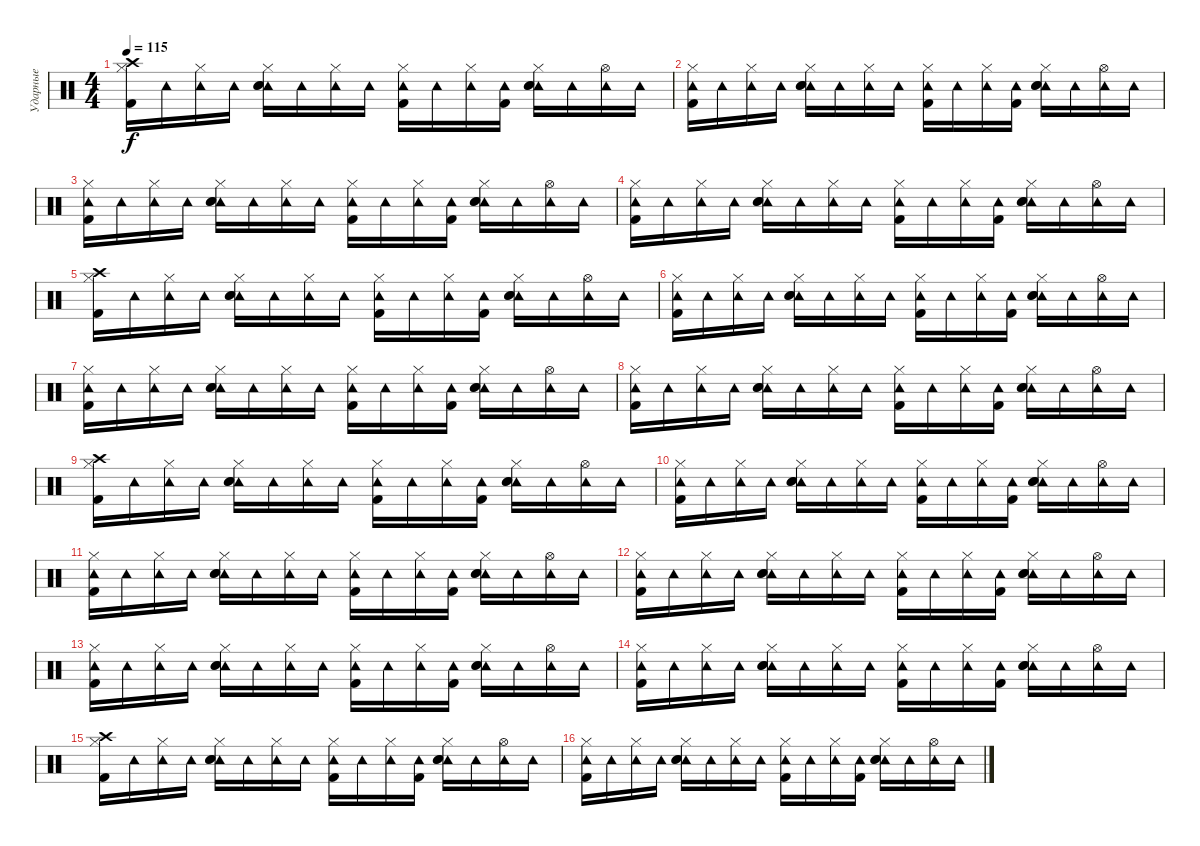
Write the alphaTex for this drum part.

\track ("Ударные" "Ударные") {instrument percussion}
\staff {score}
\articulation defaults
\ts (4 4)
\tempo 115
\clef neutral
\ks c
("Crash high (hit)" "Hi-Hat (closed)" "Kick (hit) 2").16{dy f} "Tambourine (hit)".16 ("Tambourine (hit)" "Hi-Hat (closed)").16 "Tambourine (hit)".16 ("Tambourine (hit)" "Hi-Hat (closed)" "Electric Snare (hit)" "Snare (hit) 2").16 "Tambourine (hit)".16 ("Tambourine (hit)" "Hi-Hat (closed)").16 "Tambourine (hit)".16 ("Tambourine (hit)" "Hi-Hat (closed)" "Kick (hit) 2").16 "Tambourine (hit)".16 ("Tambourine (hit)" "Hi-Hat (closed)").16 ("Tambourine (hit)" "Kick (hit) 2").16 ("Tambourine (hit)" "Hi-Hat (closed)" "Electric Snare (hit)" "Snare (hit) 2").16 "Tambourine (hit)".16 ("Tambourine (hit)" "Hi-Hat (open)").16 "Tambourine (hit)".16 |
("Tambourine (hit)" "Hi-Hat (closed)" "Kick (hit) 2").16 "Tambourine (hit)".16 ("Tambourine (hit)" "Hi-Hat (closed)").16 "Tambourine (hit)".16 ("Tambourine (hit)" "Hi-Hat (closed)" "Electric Snare (hit)" "Snare (hit) 2").16 "Tambourine (hit)".16 ("Tambourine (hit)" "Hi-Hat (closed)").16 "Tambourine (hit)".16 ("Tambourine (hit)" "Hi-Hat (closed)" "Kick (hit) 2").16 "Tambourine (hit)".16 ("Tambourine (hit)" "Hi-Hat (closed)").16 ("Tambourine (hit)" "Kick (hit) 2").16 ("Tambourine (hit)" "Hi-Hat (closed)" "Electric Snare (hit)" "Snare (hit) 2").16 "Tambourine (hit)".16 ("Tambourine (hit)" "Hi-Hat (open)").16 "Tambourine (hit)".16 |
("Tambourine (hit)" "Hi-Hat (closed)" "Kick (hit) 2").16 "Tambourine (hit)".16 ("Tambourine (hit)" "Hi-Hat (closed)").16 "Tambourine (hit)".16 ("Tambourine (hit)" "Hi-Hat (closed)" "Electric Snare (hit)" "Snare (hit) 2").16 "Tambourine (hit)".16 ("Tambourine (hit)" "Hi-Hat (closed)").16 "Tambourine (hit)".16 ("Tambourine (hit)" "Hi-Hat (closed)" "Kick (hit) 2").16 "Tambourine (hit)".16 ("Tambourine (hit)" "Hi-Hat (closed)").16 ("Tambourine (hit)" "Kick (hit) 2").16 ("Tambourine (hit)" "Hi-Hat (closed)" "Electric Snare (hit)" "Snare (hit) 2").16 "Tambourine (hit)".16 ("Tambourine (hit)" "Hi-Hat (open)").16 "Tambourine (hit)".16 |
("Tambourine (hit)" "Hi-Hat (closed)" "Kick (hit) 2").16 "Tambourine (hit)".16 ("Tambourine (hit)" "Hi-Hat (closed)").16 "Tambourine (hit)".16 ("Tambourine (hit)" "Hi-Hat (closed)" "Electric Snare (hit)" "Snare (hit) 2").16 "Tambourine (hit)".16 ("Tambourine (hit)" "Hi-Hat (closed)").16 "Tambourine (hit)".16 ("Tambourine (hit)" "Hi-Hat (closed)" "Kick (hit) 2").16 "Tambourine (hit)".16 ("Tambourine (hit)" "Hi-Hat (closed)").16 ("Tambourine (hit)" "Kick (hit) 2").16 ("Tambourine (hit)" "Hi-Hat (closed)" "Electric Snare (hit)" "Snare (hit) 2").16 "Tambourine (hit)".16 ("Tambourine (hit)" "Hi-Hat (open)").16 "Tambourine (hit)".16 |
("Crash high (hit)" "Hi-Hat (closed)" "Kick (hit) 2").16 "Tambourine (hit)".16 ("Tambourine (hit)" "Hi-Hat (closed)").16 "Tambourine (hit)".16 ("Tambourine (hit)" "Hi-Hat (closed)" "Electric Snare (hit)" "Snare (hit) 2").16 "Tambourine (hit)".16 ("Tambourine (hit)" "Hi-Hat (closed)").16 "Tambourine (hit)".16 ("Tambourine (hit)" "Hi-Hat (closed)" "Kick (hit) 2").16 "Tambourine (hit)".16 ("Tambourine (hit)" "Hi-Hat (closed)").16 ("Tambourine (hit)" "Kick (hit) 2").16 ("Tambourine (hit)" "Hi-Hat (closed)" "Electric Snare (hit)" "Snare (hit) 2").16 "Tambourine (hit)".16 ("Tambourine (hit)" "Hi-Hat (open)").16 "Tambourine (hit)".16 |
("Tambourine (hit)" "Hi-Hat (closed)" "Kick (hit) 2").16 "Tambourine (hit)".16 ("Tambourine (hit)" "Hi-Hat (closed)").16 "Tambourine (hit)".16 ("Tambourine (hit)" "Hi-Hat (closed)" "Electric Snare (hit)" "Snare (hit) 2").16 "Tambourine (hit)".16 ("Tambourine (hit)" "Hi-Hat (closed)").16 "Tambourine (hit)".16 ("Tambourine (hit)" "Hi-Hat (closed)" "Kick (hit) 2").16 "Tambourine (hit)".16 ("Tambourine (hit)" "Hi-Hat (closed)").16 ("Tambourine (hit)" "Kick (hit) 2").16 ("Tambourine (hit)" "Hi-Hat (closed)" "Electric Snare (hit)" "Snare (hit) 2").16 "Tambourine (hit)".16 ("Tambourine (hit)" "Hi-Hat (open)").16 "Tambourine (hit)".16 |
("Tambourine (hit)" "Hi-Hat (closed)" "Kick (hit) 2").16 "Tambourine (hit)".16 ("Tambourine (hit)" "Hi-Hat (closed)").16 "Tambourine (hit)".16 ("Tambourine (hit)" "Hi-Hat (closed)" "Electric Snare (hit)" "Snare (hit) 2").16 "Tambourine (hit)".16 ("Tambourine (hit)" "Hi-Hat (closed)").16 "Tambourine (hit)".16 ("Tambourine (hit)" "Hi-Hat (closed)" "Kick (hit) 2").16 "Tambourine (hit)".16 ("Tambourine (hit)" "Hi-Hat (closed)").16 ("Tambourine (hit)" "Kick (hit) 2").16 ("Tambourine (hit)" "Hi-Hat (closed)" "Electric Snare (hit)" "Snare (hit) 2").16 "Tambourine (hit)".16 ("Tambourine (hit)" "Hi-Hat (open)").16 "Tambourine (hit)".16 |
("Tambourine (hit)" "Hi-Hat (closed)" "Kick (hit) 2").16 "Tambourine (hit)".16 ("Tambourine (hit)" "Hi-Hat (closed)").16 "Tambourine (hit)".16 ("Tambourine (hit)" "Hi-Hat (closed)" "Electric Snare (hit)" "Snare (hit) 2").16 "Tambourine (hit)".16 ("Tambourine (hit)" "Hi-Hat (closed)").16 "Tambourine (hit)".16 ("Tambourine (hit)" "Hi-Hat (closed)" "Kick (hit) 2").16 "Tambourine (hit)".16 ("Tambourine (hit)" "Hi-Hat (closed)").16 ("Tambourine (hit)" "Kick (hit) 2").16 ("Tambourine (hit)" "Hi-Hat (closed)" "Electric Snare (hit)" "Snare (hit) 2").16 "Tambourine (hit)".16 ("Tambourine (hit)" "Hi-Hat (open)").16 "Tambourine (hit)".16 |
("Crash high (hit)" "Hi-Hat (closed)" "Kick (hit) 2").16 "Tambourine (hit)".16 ("Tambourine (hit)" "Hi-Hat (closed)").16 "Tambourine (hit)".16 ("Tambourine (hit)" "Hi-Hat (closed)" "Electric Snare (hit)" "Snare (hit) 2").16 "Tambourine (hit)".16 ("Tambourine (hit)" "Hi-Hat (closed)").16 "Tambourine (hit)".16 ("Tambourine (hit)" "Hi-Hat (closed)" "Kick (hit) 2").16 "Tambourine (hit)".16 ("Tambourine (hit)" "Hi-Hat (closed)").16 ("Tambourine (hit)" "Kick (hit) 2").16 ("Tambourine (hit)" "Hi-Hat (closed)" "Electric Snare (hit)" "Snare (hit) 2").16 "Tambourine (hit)".16 ("Tambourine (hit)" "Hi-Hat (open)").16 "Tambourine (hit)".16 |
("Tambourine (hit)" "Hi-Hat (closed)" "Kick (hit) 2").16 "Tambourine (hit)".16 ("Tambourine (hit)" "Hi-Hat (closed)").16 "Tambourine (hit)".16 ("Tambourine (hit)" "Hi-Hat (closed)" "Electric Snare (hit)" "Snare (hit) 2").16 "Tambourine (hit)".16 ("Tambourine (hit)" "Hi-Hat (closed)").16 "Tambourine (hit)".16 ("Tambourine (hit)" "Hi-Hat (closed)" "Kick (hit) 2").16 "Tambourine (hit)".16 ("Tambourine (hit)" "Hi-Hat (closed)").16 ("Tambourine (hit)" "Kick (hit) 2").16 ("Tambourine (hit)" "Hi-Hat (closed)" "Electric Snare (hit)" "Snare (hit) 2").16 "Tambourine (hit)".16 ("Tambourine (hit)" "Hi-Hat (open)").16 "Tambourine (hit)".16 |
("Tambourine (hit)" "Hi-Hat (closed)" "Kick (hit) 2").16 "Tambourine (hit)".16 ("Tambourine (hit)" "Hi-Hat (closed)").16 "Tambourine (hit)".16 ("Tambourine (hit)" "Hi-Hat (closed)" "Electric Snare (hit)" "Snare (hit) 2").16 "Tambourine (hit)".16 ("Tambourine (hit)" "Hi-Hat (closed)").16 "Tambourine (hit)".16 ("Tambourine (hit)" "Hi-Hat (closed)" "Kick (hit) 2").16 "Tambourine (hit)".16 ("Tambourine (hit)" "Hi-Hat (closed)").16 ("Tambourine (hit)" "Kick (hit) 2").16 ("Tambourine (hit)" "Hi-Hat (closed)" "Electric Snare (hit)" "Snare (hit) 2").16 "Tambourine (hit)".16 ("Tambourine (hit)" "Hi-Hat (open)").16 "Tambourine (hit)".16 |
("Tambourine (hit)" "Hi-Hat (closed)" "Kick (hit) 2").16 "Tambourine (hit)".16 ("Tambourine (hit)" "Hi-Hat (closed)").16 "Tambourine (hit)".16 ("Tambourine (hit)" "Hi-Hat (closed)" "Electric Snare (hit)" "Snare (hit) 2").16 "Tambourine (hit)".16 ("Tambourine (hit)" "Hi-Hat (closed)").16 "Tambourine (hit)".16 ("Tambourine (hit)" "Hi-Hat (closed)" "Kick (hit) 2").16 "Tambourine (hit)".16 ("Tambourine (hit)" "Hi-Hat (closed)").16 ("Tambourine (hit)" "Kick (hit) 2").16 ("Tambourine (hit)" "Hi-Hat (closed)" "Electric Snare (hit)" "Snare (hit) 2").16 "Tambourine (hit)".16 ("Tambourine (hit)" "Hi-Hat (open)").16 "Tambourine (hit)".16 |
("Tambourine (hit)" "Hi-Hat (closed)" "Kick (hit) 2").16 "Tambourine (hit)".16 ("Tambourine (hit)" "Hi-Hat (closed)").16 "Tambourine (hit)".16 ("Tambourine (hit)" "Hi-Hat (closed)" "Electric Snare (hit)" "Snare (hit) 2").16 "Tambourine (hit)".16 ("Tambourine (hit)" "Hi-Hat (closed)").16 "Tambourine (hit)".16 ("Tambourine (hit)" "Hi-Hat (closed)" "Kick (hit) 2").16 "Tambourine (hit)".16 ("Tambourine (hit)" "Hi-Hat (closed)").16 ("Tambourine (hit)" "Kick (hit) 2").16 ("Tambourine (hit)" "Hi-Hat (closed)" "Electric Snare (hit)" "Snare (hit) 2").16 "Tambourine (hit)".16 ("Tambourine (hit)" "Hi-Hat (open)").16 "Tambourine (hit)".16 |
("Tambourine (hit)" "Hi-Hat (closed)" "Kick (hit) 2").16 "Tambourine (hit)".16 ("Tambourine (hit)" "Hi-Hat (closed)").16 "Tambourine (hit)".16 ("Tambourine (hit)" "Hi-Hat (closed)" "Electric Snare (hit)" "Snare (hit) 2").16 "Tambourine (hit)".16 ("Tambourine (hit)" "Hi-Hat (closed)").16 "Tambourine (hit)".16 ("Tambourine (hit)" "Hi-Hat (closed)" "Kick (hit) 2").16 "Tambourine (hit)".16 ("Tambourine (hit)" "Hi-Hat (closed)").16 ("Tambourine (hit)" "Kick (hit) 2").16 ("Tambourine (hit)" "Hi-Hat (closed)" "Electric Snare (hit)" "Snare (hit) 2").16 "Tambourine (hit)".16 ("Tambourine (hit)" "Hi-Hat (open)").16 "Tambourine (hit)".16 |
("Crash high (hit)" "Hi-Hat (closed)" "Kick (hit) 2").16 "Tambourine (hit)".16 ("Tambourine (hit)" "Hi-Hat (closed)").16 "Tambourine (hit)".16 ("Tambourine (hit)" "Hi-Hat (closed)" "Electric Snare (hit)" "Snare (hit) 2").16 "Tambourine (hit)".16 ("Tambourine (hit)" "Hi-Hat (closed)").16 "Tambourine (hit)".16 ("Tambourine (hit)" "Hi-Hat (closed)" "Kick (hit) 2").16 "Tambourine (hit)".16 ("Tambourine (hit)" "Hi-Hat (closed)").16 ("Tambourine (hit)" "Kick (hit) 2").16 ("Tambourine (hit)" "Hi-Hat (closed)" "Electric Snare (hit)" "Snare (hit) 2").16 "Tambourine (hit)".16 ("Tambourine (hit)" "Hi-Hat (open)").16 "Tambourine (hit)".16 |
("Tambourine (hit)" "Hi-Hat (closed)" "Kick (hit) 2").16 "Tambourine (hit)".16 ("Tambourine (hit)" "Hi-Hat (closed)").16 "Tambourine (hit)".16 ("Tambourine (hit)" "Hi-Hat (closed)" "Electric Snare (hit)" "Snare (hit) 2").16 "Tambourine (hit)".16 ("Tambourine (hit)" "Hi-Hat (closed)").16 "Tambourine (hit)".16 ("Tambourine (hit)" "Hi-Hat (closed)" "Kick (hit) 2").16 "Tambourine (hit)".16 ("Tambourine (hit)" "Hi-Hat (closed)").16 ("Tambourine (hit)" "Kick (hit) 2").16 ("Tambourine (hit)" "Hi-Hat (closed)" "Electric Snare (hit)" "Snare (hit) 2").16 "Tambourine (hit)".16 ("Tambourine (hit)" "Hi-Hat (open)").16 "Tambourine (hit)".16
